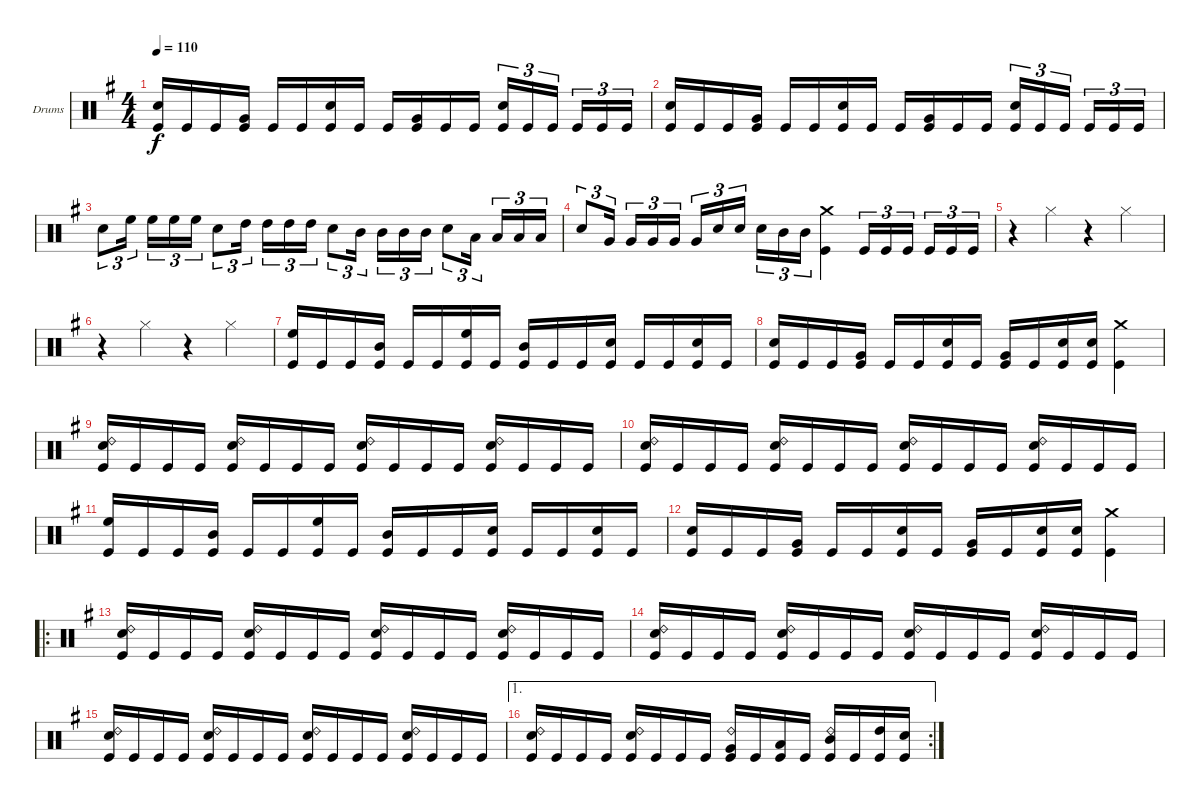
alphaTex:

\bracketExtendMode groupsimilarinstruments
\firstSystemTrackNameOrientation horizontal
\otherSystemsTrackNameOrientation horizontal
\track ("Drumkit" "Drums") {instrument percussion}
\staff {score}
\articulation defaults
\ts (4 4)
\tempo 110
\clef neutral
\ks g
("Snare (hit) 2" "Kick (hit)").16{dy f} "Kick (hit)".16 "Kick (hit)".16 ("Very Low Tom (hit)" "Kick (hit)").16 "Kick (hit)".16 "Kick (hit)".16 ("Snare (hit) 2" "Kick (hit)").16 "Kick (hit)".16 "Kick (hit)".16 ("Very Low Tom (hit)" "Kick (hit)").16 "Kick (hit)".16 "Kick (hit)".16 ("Snare (hit) 2" "Kick (hit)").16{tu (3 2)} "Kick (hit)".16{tu (3 2)} "Kick (hit)".16{tu (3 2)} "Kick (hit)".16{tu (3 2)} "Kick (hit)".16{tu (3 2)} "Kick (hit)".16{tu (3 2)} |
("Snare (hit) 2" "Kick (hit)").16 "Kick (hit)".16 "Kick (hit)".16 ("Very Low Tom (hit)" "Kick (hit)").16 "Kick (hit)".16 "Kick (hit)".16 ("Snare (hit) 2" "Kick (hit)").16 "Kick (hit)".16 "Kick (hit)".16 ("Very Low Tom (hit)" "Kick (hit)").16 "Kick (hit)".16 "Kick (hit)".16 ("Snare (hit) 2" "Kick (hit)").16{tu (3 2)} "Kick (hit)".16{tu (3 2)} "Kick (hit)".16{tu (3 2)} "Kick (hit)".16{tu (3 2)} "Kick (hit)".16{tu (3 2)} "Kick (hit)".16{tu (3 2)} |
"Snare (hit) 2".8{tu (3 2)} "High Floor Tom (hit)".16{tu (3 2)} "High Floor Tom (hit)".16{tu (3 2)} "High Floor Tom (hit)".16{tu (3 2)} "High Floor Tom (hit)".16{tu (3 2)} "Snare (hit) 2".8{tu (3 2)} "High Tom (hit)".16{tu (3 2)} "High Tom (hit)".16{tu (3 2)} "High Tom (hit)".16{tu (3 2)} "High Tom (hit)".16{tu (3 2)} "Snare (hit) 2".8{tu (3 2)} "Mid Tom (hit)".16{tu (3 2)} "Mid Tom (hit)".16{tu (3 2)} "Mid Tom (hit)".16{tu (3 2)} "Mid Tom (hit)".16{tu (3 2)} "Snare (hit) 2".8{tu (3 2)} "Low Tom (hit)".16{tu (3 2)} "Low Tom (hit)".16{tu (3 2)} "Low Tom (hit)".16{tu (3 2)} "Low Tom (hit)".16{tu (3 2)} |
"Snare (hit) 2".8{tu (3 2)} "Very Low Tom (hit)".16{tu (3 2)} "Very Low Tom (hit)".16{tu (3 2)} "Very Low Tom (hit)".16{tu (3 2)} "Very Low Tom (hit)".16{tu (3 2)} "Very Low Tom (hit)".16{tu (3 2)} "Snare (hit) 2".16{tu (3 2)} "Snare (hit) 2".16{tu (3 2)} "Snare (hit) 2".16{tu (3 2)} "Mid Tom (hit)".16{tu (3 2)} "Mid Tom (hit)".16{tu (3 2)} ("Crash medium (hit)" "Kick (hit)").4 "Kick (hit)".16{tu (3 2)} "Kick (hit)".16{tu (3 2)} "Kick (hit)".16{tu (3 2)} "Kick (hit)".16{tu (3 2)} "Kick (hit)".16{tu (3 2)} "Kick (hit)".16{tu (3 2)} |
r.4 "Hi-Hat (closed)".4 r.4 "Hi-Hat (closed)".4 |
r.4 "Hi-Hat (closed)".4 r.4 "Hi-Hat (closed)".4 |
("High Floor Tom (hit)" "Kick (hit)").16 "Kick (hit)".16 "Kick (hit)".16 ("Mid Tom (hit)" "Kick (hit)").16 "Kick (hit)".16 "Kick (hit)".16 ("High Floor Tom (hit)" "Kick (hit)").16 "Kick (hit)".16 ("Mid Tom (hit)" "Kick (hit)").16 "Kick (hit)".16 "Kick (hit)".16 ("Snare (hit) 2" "Kick (hit)").16 "Kick (hit)".16 "Kick (hit)".16 ("Snare (hit) 2" "Kick (hit)").16 "Kick (hit)".16 |
("Snare (hit) 2" "Kick (hit)").16 "Kick (hit)".16 "Kick (hit)".16 ("Very Low Tom (hit)" "Kick (hit)").16 "Kick (hit)".16 "Kick (hit)".16 ("Snare (hit) 2" "Kick (hit)").16 "Kick (hit)".16 ("Very Low Tom (hit)" "Kick (hit)").16 "Kick (hit)".16 ("Snare (hit) 2" "Kick (hit)").16 ("Snare (hit) 2" "Kick (hit)").16 ("Crash medium (hit)" "Kick (hit)").4 |
("Ride (bell) 2" "Snare (hit) 2" "Kick (hit)").16 "Kick (hit)".16 "Kick (hit)".16 "Kick (hit)".16 ("Ride (bell) 2" "Snare (hit) 2" "Kick (hit)").16 "Kick (hit)".16 "Kick (hit)".16 "Kick (hit)".16 ("Ride (bell) 2" "Snare (hit) 2" "Kick (hit)").16 "Kick (hit)".16 "Kick (hit)".16 "Kick (hit)".16 ("Ride (bell) 2" "Snare (hit) 2" "Kick (hit)").16 "Kick (hit)".16 "Kick (hit)".16 "Kick (hit)".16 |
("Ride (bell) 2" "Snare (hit) 2" "Kick (hit)").16 "Kick (hit)".16 "Kick (hit)".16 "Kick (hit)".16 ("Ride (bell) 2" "Snare (hit) 2" "Kick (hit)").16 "Kick (hit)".16 "Kick (hit)".16 "Kick (hit)".16 ("Ride (bell) 2" "Snare (hit) 2" "Kick (hit)").16 "Kick (hit)".16 "Kick (hit)".16 "Kick (hit)".16 ("Ride (bell) 2" "Snare (hit) 2" "Kick (hit)").16 "Kick (hit)".16 "Kick (hit)".16 "Kick (hit)".16 |
("High Floor Tom (hit)" "Kick (hit)").16 "Kick (hit)".16 "Kick (hit)".16 ("Mid Tom (hit)" "Kick (hit)").16 "Kick (hit)".16 "Kick (hit)".16 ("High Floor Tom (hit)" "Kick (hit)").16 "Kick (hit)".16 ("Mid Tom (hit)" "Kick (hit)").16 "Kick (hit)".16 "Kick (hit)".16 ("Snare (hit) 2" "Kick (hit)").16 "Kick (hit)".16 "Kick (hit)".16 ("Snare (hit) 2" "Kick (hit)").16 "Kick (hit)".16 |
("Snare (hit) 2" "Kick (hit)").16 "Kick (hit)".16 "Kick (hit)".16 ("Very Low Tom (hit)" "Kick (hit)").16 "Kick (hit)".16 "Kick (hit)".16 ("Snare (hit) 2" "Kick (hit)").16 "Kick (hit)".16 ("Very Low Tom (hit)" "Kick (hit)").16 "Kick (hit)".16 ("Snare (hit) 2" "Kick (hit)").16 ("Snare (hit) 2" "Kick (hit)").16 ("Crash medium (hit)" "Kick (hit)").4 |
\ro
("Ride (bell) 2" "Snare (hit) 2" "Kick (hit)").16 "Kick (hit)".16 "Kick (hit)".16 "Kick (hit)".16 ("Ride (bell) 2" "Snare (hit) 2" "Kick (hit)").16 "Kick (hit)".16 "Kick (hit)".16 "Kick (hit)".16 ("Ride (bell) 2" "Snare (hit) 2" "Kick (hit)").16 "Kick (hit)".16 "Kick (hit)".16 "Kick (hit)".16 ("Ride (bell) 2" "Snare (hit) 2" "Kick (hit)").16 "Kick (hit)".16 "Kick (hit)".16 "Kick (hit)".16 |
("Ride (bell) 2" "Snare (hit) 2" "Kick (hit)").16 "Kick (hit)".16 "Kick (hit)".16 "Kick (hit)".16 ("Ride (bell) 2" "Snare (hit) 2" "Kick (hit)").16 "Kick (hit)".16 "Kick (hit)".16 "Kick (hit)".16 ("Ride (bell) 2" "Snare (hit) 2" "Kick (hit)").16 "Kick (hit)".16 "Kick (hit)".16 "Kick (hit)".16 ("Ride (bell) 2" "Snare (hit) 2" "Kick (hit)").16 "Kick (hit)".16 "Kick (hit)".16 "Kick (hit)".16 |
("Ride (bell) 2" "Snare (hit) 2" "Kick (hit)").16 "Kick (hit)".16 "Kick (hit)".16 "Kick (hit)".16 ("Ride (bell) 2" "Snare (hit) 2" "Kick (hit)").16 "Kick (hit)".16 "Kick (hit)".16 "Kick (hit)".16 ("Ride (bell) 2" "Snare (hit) 2" "Kick (hit)").16 "Kick (hit)".16 "Kick (hit)".16 "Kick (hit)".16 ("Ride (bell) 2" "Snare (hit) 2" "Kick (hit)").16 "Kick (hit)".16 "Kick (hit)".16 "Kick (hit)".16 |
\ae 1
\rc 2
("Ride (bell) 2" "Snare (hit) 2" "Kick (hit)").16 "Kick (hit)".16 "Kick (hit)".16 "Kick (hit)".16 ("Ride (bell) 2" "Snare (hit) 2" "Kick (hit)").16 "Kick (hit)".16 "Kick (hit)".16 "Kick (hit)".16 ("Ride (bell) 2" "Very Low Tom (hit)" "Kick (hit)").16 "Kick (hit)".16 ("Low Tom (hit)" "Kick (hit)").16 "Kick (hit)".16 ("Ride (bell) 2" "Mid Tom (hit)" "Kick (hit)").16 "Kick (hit)".16 ("High Tom (hit)" "Kick (hit)").16 ("Snare (hit) 2" "Kick (hit)").16
